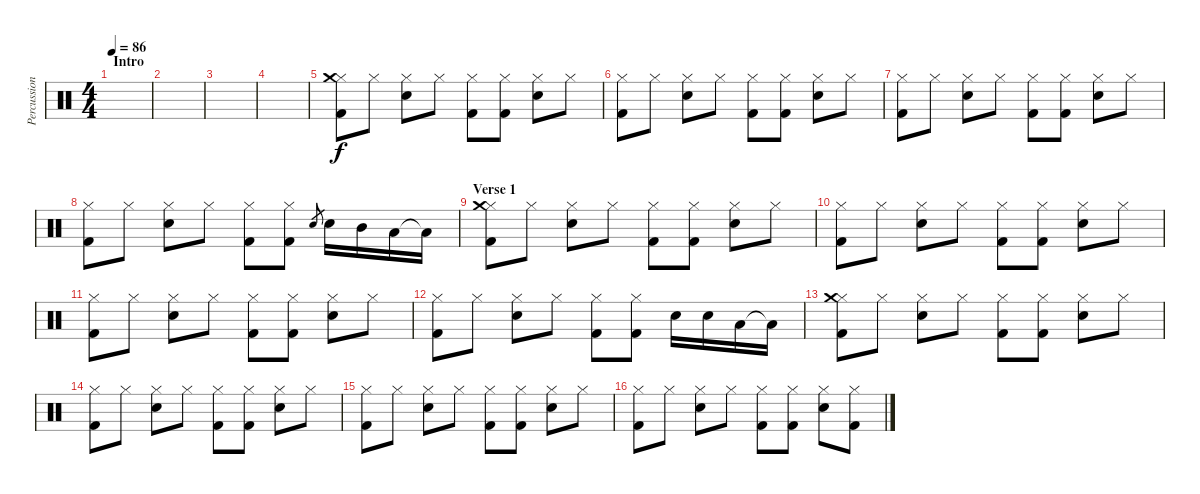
\track ("Percussion" "Percussion") {instrument percussion}
\staff {score}
\articulation defaults
\ts (4 4)
\section ("" "Intro")
\tempo 86
\clef neutral
\ks c
|
|
|
|
("Kick (hit) 2" "Hi-Hat (closed)" "Crash medium (hit)").8 "Hi-Hat (closed)".8 ("Electric Snare (hit)" "Hi-Hat (closed)").8 "Hi-Hat (closed)".8 ("Kick (hit) 2" "Hi-Hat (closed)").8 ("Kick (hit) 2" "Hi-Hat (closed)").8 ("Electric Snare (hit)" "Hi-Hat (closed)").8 "Hi-Hat (closed)".8 |
("Kick (hit) 2" "Hi-Hat (closed)").8 "Hi-Hat (closed)".8 ("Electric Snare (hit)" "Hi-Hat (closed)").8 "Hi-Hat (closed)".8 ("Kick (hit) 2" "Hi-Hat (closed)").8 ("Kick (hit) 2" "Hi-Hat (closed)").8 ("Electric Snare (hit)" "Hi-Hat (closed)").8 "Hi-Hat (closed)".8 |
("Kick (hit) 2" "Hi-Hat (closed)").8 "Hi-Hat (closed)".8 ("Electric Snare (hit)" "Hi-Hat (closed)").8 "Hi-Hat (closed)".8 ("Kick (hit) 2" "Hi-Hat (closed)").8 ("Kick (hit) 2" "Hi-Hat (closed)").8 ("Electric Snare (hit)" "Hi-Hat (closed)").8 "Hi-Hat (closed)".8 |
("Kick (hit) 2" "Hi-Hat (closed)").8 "Hi-Hat (closed)".8 ("Electric Snare (hit)" "Hi-Hat (closed)").8 "Hi-Hat (closed)".8 ("Kick (hit) 2" "Hi-Hat (closed)").8 ("Kick (hit) 2" "Hi-Hat (closed)").8 "Electric Snare (hit)".8{gr} "Electric Snare (hit)".16 "Mid Tom (hit)".16 "Low Tom (hit)".16 "Low Tom (hit)"{t}.16 |
\section ("" "Verse 1")
("Kick (hit) 2" "Hi-Hat (closed)" "Crash medium (hit)").8 "Hi-Hat (closed)".8 ("Electric Snare (hit)" "Hi-Hat (closed)").8 "Hi-Hat (closed)".8 ("Kick (hit) 2" "Hi-Hat (closed)").8 ("Kick (hit) 2" "Hi-Hat (closed)").8 ("Electric Snare (hit)" "Hi-Hat (closed)").8 "Hi-Hat (closed)".8 |
("Kick (hit) 2" "Hi-Hat (closed)").8 "Hi-Hat (closed)".8 ("Electric Snare (hit)" "Hi-Hat (closed)").8 "Hi-Hat (closed)".8 ("Kick (hit) 2" "Hi-Hat (closed)").8 ("Kick (hit) 2" "Hi-Hat (closed)").8 ("Electric Snare (hit)" "Hi-Hat (closed)").8 "Hi-Hat (closed)".8 |
("Kick (hit) 2" "Hi-Hat (closed)").8 "Hi-Hat (closed)".8 ("Electric Snare (hit)" "Hi-Hat (closed)").8 "Hi-Hat (closed)".8 ("Kick (hit) 2" "Hi-Hat (closed)").8 ("Kick (hit) 2" "Hi-Hat (closed)").8 ("Electric Snare (hit)" "Hi-Hat (closed)").8 "Hi-Hat (closed)".8 |
("Kick (hit) 2" "Hi-Hat (closed)").8 "Hi-Hat (closed)".8 ("Electric Snare (hit)" "Hi-Hat (closed)").8 "Hi-Hat (closed)".8 ("Kick (hit) 2" "Hi-Hat (closed)").8 ("Kick (hit) 2" "Hi-Hat (closed)").8 "Electric Snare (hit)".16 "Electric Snare (hit)".16 "Low Tom (hit)".16 "Low Tom (hit)"{t}.16 |
("Kick (hit) 2" "Hi-Hat (closed)" "Crash medium (hit)").8 "Hi-Hat (closed)".8 ("Electric Snare (hit)" "Hi-Hat (closed)").8 "Hi-Hat (closed)".8 ("Kick (hit) 2" "Hi-Hat (closed)").8 ("Kick (hit) 2" "Hi-Hat (closed)").8 ("Electric Snare (hit)" "Hi-Hat (closed)").8 "Hi-Hat (closed)".8 |
("Kick (hit) 2" "Hi-Hat (closed)").8 "Hi-Hat (closed)".8 ("Electric Snare (hit)" "Hi-Hat (closed)").8 "Hi-Hat (closed)".8 ("Kick (hit) 2" "Hi-Hat (closed)").8 ("Kick (hit) 2" "Hi-Hat (closed)").8 ("Electric Snare (hit)" "Hi-Hat (closed)").8 "Hi-Hat (closed)".8 |
("Kick (hit) 2" "Hi-Hat (closed)").8 "Hi-Hat (closed)".8 ("Electric Snare (hit)" "Hi-Hat (closed)").8 "Hi-Hat (closed)".8 ("Kick (hit) 2" "Hi-Hat (closed)").8 ("Kick (hit) 2" "Hi-Hat (closed)").8 ("Electric Snare (hit)" "Hi-Hat (closed)").8 "Hi-Hat (closed)".8 |
("Kick (hit) 2" "Hi-Hat (closed)").8 "Hi-Hat (closed)".8 ("Electric Snare (hit)" "Hi-Hat (closed)").8 "Hi-Hat (closed)".8 ("Kick (hit) 2" "Hi-Hat (closed)").8 ("Kick (hit) 2" "Hi-Hat (closed)").8 ("Electric Snare (hit)" "Hi-Hat (closed)").8 ("Kick (hit) 2" "Hi-Hat (closed)").8
